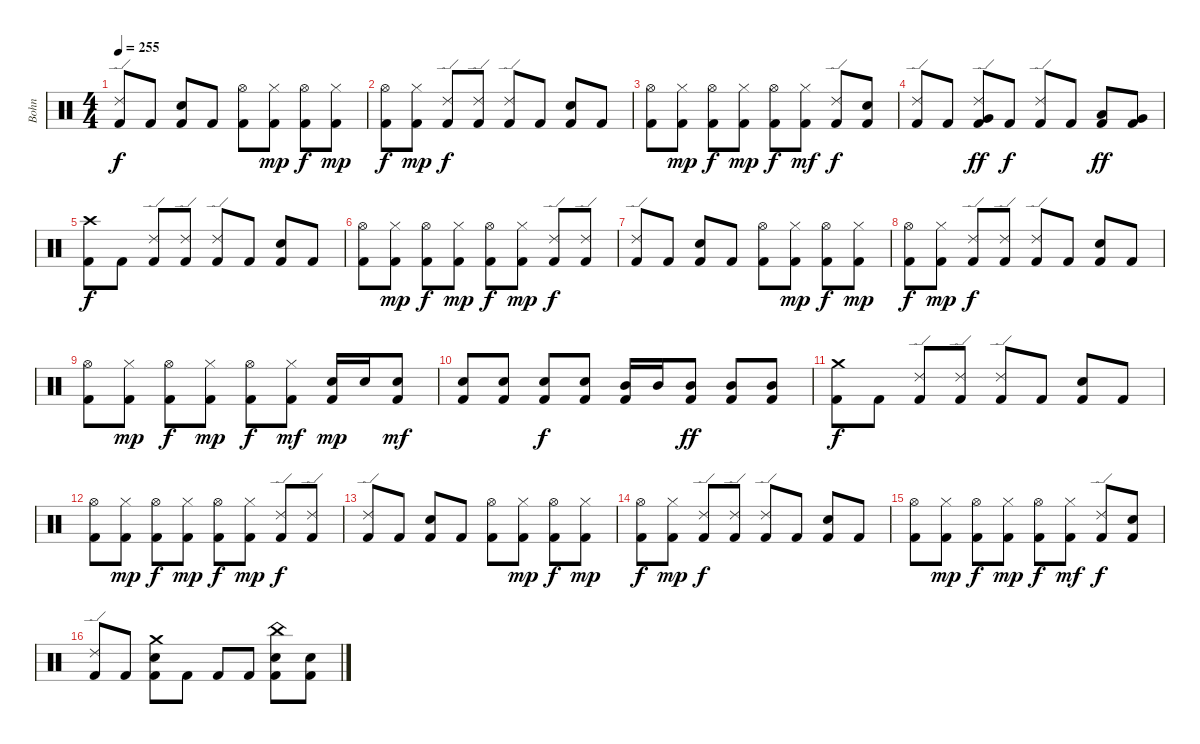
\track ("Bohn" "Bohn") {instrument percussion}
\staff {score}
\articulation defaults
\ts (4 4)
\tempo 255
\clef neutral
\ks c
("Ride (edge) 2" "Kick (hit) 2").8{dy f} "Kick (hit) 2".8 ("Electric Snare (hit)" "Kick (hit) 2").8 "Kick (hit) 2".8 ("Hi-Hat (open)" "Kick (hit) 2").8 ("Hi-Hat (closed)" "Kick (hit) 2").8{dy mp} ("Hi-Hat (open)" "Kick (hit) 2").8{dy f} ("Hi-Hat (closed)" "Kick (hit) 2").8{dy mp} |
("Hi-Hat (open)" "Kick (hit) 2").8{dy f} ("Hi-Hat (closed)" "Kick (hit) 2").8{dy mp} ("Ride (edge) 2" "Kick (hit) 2").8{dy f} ("Ride (edge) 2" "Kick (hit) 2").8 ("Ride (edge) 2" "Kick (hit) 2").8 "Kick (hit) 2".8 ("Electric Snare (hit)" "Kick (hit) 2").8 "Kick (hit) 2".8 |
("Hi-Hat (open)" "Kick (hit) 2").8 ("Hi-Hat (closed)" "Kick (hit) 2").8{dy mp} ("Hi-Hat (open)" "Kick (hit) 2").8{dy f} ("Hi-Hat (closed)" "Kick (hit) 2").8{dy mp} ("Hi-Hat (open)" "Kick (hit) 2").8{dy f} ("Hi-Hat (closed)" "Kick (hit) 2").8{dy mf} ("Ride (edge) 2" "Kick (hit) 2").8{dy f} ("Electric Snare (hit)" "Kick (hit) 2").8 |
("Ride (edge) 2" "Kick (hit) 2").8 "Kick (hit) 2".8 ("Ride (edge) 2" "Very Low Tom (hit)" "Kick (hit) 2").8{dy ff} "Kick (hit) 2".8{dy f} ("Ride (edge) 2" "Kick (hit) 2").8 "Kick (hit) 2".8 ("Low Tom (hit)" "Kick (hit) 2").8{dy ff} ("Very Low Tom (hit)" "Kick (hit) 2").8 |
("Crash high (hit)" "Kick (hit) 2").8{dy f} "Kick (hit) 2".8 ("Ride (edge) 2" "Kick (hit) 2").8 ("Ride (edge) 2" "Kick (hit) 2").8 ("Ride (edge) 2" "Kick (hit) 2").8 "Kick (hit) 2".8 ("Electric Snare (hit)" "Kick (hit) 2").8 "Kick (hit) 2".8 |
("Hi-Hat (open)" "Kick (hit) 2").8 ("Hi-Hat (closed)" "Kick (hit) 2").8{dy mp} ("Hi-Hat (open)" "Kick (hit) 2").8{dy f} ("Hi-Hat (closed)" "Kick (hit) 2").8{dy mp} ("Hi-Hat (open)" "Kick (hit) 2").8{dy f} ("Hi-Hat (closed)" "Kick (hit) 2").8{dy mp} ("Ride (edge) 2" "Kick (hit) 2").8{dy f} ("Ride (edge) 2" "Kick (hit) 2").8 |
("Ride (edge) 2" "Kick (hit) 2").8 "Kick (hit) 2".8 ("Electric Snare (hit)" "Kick (hit) 2").8 "Kick (hit) 2".8 ("Hi-Hat (open)" "Kick (hit) 2").8 ("Hi-Hat (closed)" "Kick (hit) 2").8{dy mp} ("Hi-Hat (open)" "Kick (hit) 2").8{dy f} ("Hi-Hat (closed)" "Kick (hit) 2").8{dy mp} |
("Hi-Hat (open)" "Kick (hit) 2").8{dy f} ("Hi-Hat (closed)" "Kick (hit) 2").8{dy mp} ("Ride (edge) 2" "Kick (hit) 2").8{dy f} ("Ride (edge) 2" "Kick (hit) 2").8 ("Ride (edge) 2" "Kick (hit) 2").8 "Kick (hit) 2".8 ("Electric Snare (hit)" "Kick (hit) 2").8 "Kick (hit) 2".8 |
("Hi-Hat (open)" "Kick (hit) 2").8 ("Hi-Hat (closed)" "Kick (hit) 2").8{dy mp} ("Hi-Hat (open)" "Kick (hit) 2").8{dy f} ("Hi-Hat (closed)" "Kick (hit) 2").8{dy mp} ("Hi-Hat (open)" "Kick (hit) 2").8{dy f} ("Hi-Hat (closed)" "Kick (hit) 2").8{dy mf} ("Electric Snare (hit)" "Kick (hit) 2").16{dy mp} "Electric Snare (hit)".16 ("Electric Snare (hit)" "Kick (hit) 2").8{dy mf} |
("Electric Snare (hit)" "Kick (hit) 2").8 ("Electric Snare (hit)" "Kick (hit) 2").8 ("Electric Snare (hit)" "Kick (hit) 2").8{dy f} ("Electric Snare (hit)" "Kick (hit) 2").8 ("Mid Tom (hit)" "Kick (hit) 2").16 "Mid Tom (hit)".16 ("Mid Tom (hit)" "Kick (hit) 2").8{dy ff} ("Mid Tom (hit)" "Kick (hit) 2").8 ("Mid Tom (hit)" "Kick (hit) 2").8 |
("Crash medium (hit)" "Kick (hit) 2").8{dy f} "Kick (hit) 2".8 ("Ride (edge) 2" "Kick (hit) 2").8 ("Ride (edge) 2" "Kick (hit) 2").8 ("Ride (edge) 2" "Kick (hit) 2").8 "Kick (hit) 2".8 ("Electric Snare (hit)" "Kick (hit) 2").8 "Kick (hit) 2".8 |
("Hi-Hat (open)" "Kick (hit) 2").8 ("Hi-Hat (closed)" "Kick (hit) 2").8{dy mp} ("Hi-Hat (open)" "Kick (hit) 2").8{dy f} ("Hi-Hat (closed)" "Kick (hit) 2").8{dy mp} ("Hi-Hat (open)" "Kick (hit) 2").8{dy f} ("Hi-Hat (closed)" "Kick (hit) 2").8{dy mp} ("Ride (edge) 2" "Kick (hit) 2").8{dy f} ("Ride (edge) 2" "Kick (hit) 2").8 |
("Ride (edge) 2" "Kick (hit) 2").8 "Kick (hit) 2".8 ("Electric Snare (hit)" "Kick (hit) 2").8 "Kick (hit) 2".8 ("Hi-Hat (open)" "Kick (hit) 2").8 ("Hi-Hat (closed)" "Kick (hit) 2").8{dy mp} ("Hi-Hat (open)" "Kick (hit) 2").8{dy f} ("Hi-Hat (closed)" "Kick (hit) 2").8{dy mp} |
("Hi-Hat (open)" "Kick (hit) 2").8{dy f} ("Hi-Hat (closed)" "Kick (hit) 2").8{dy mp} ("Ride (edge) 2" "Kick (hit) 2").8{dy f} ("Ride (edge) 2" "Kick (hit) 2").8 ("Ride (edge) 2" "Kick (hit) 2").8 "Kick (hit) 2".8 ("Electric Snare (hit)" "Kick (hit) 2").8 "Kick (hit) 2".8 |
("Hi-Hat (open)" "Kick (hit) 2").8 ("Hi-Hat (closed)" "Kick (hit) 2").8{dy mp} ("Hi-Hat (open)" "Kick (hit) 2").8{dy f} ("Hi-Hat (closed)" "Kick (hit) 2").8{dy mp} ("Hi-Hat (open)" "Kick (hit) 2").8{dy f} ("Hi-Hat (closed)" "Kick (hit) 2").8{dy mf} ("Ride (edge) 2" "Kick (hit) 2").8{dy f} ("Electric Snare (hit)" "Kick (hit) 2").8 |
("Ride (edge) 2" "Kick (hit) 2").8 "Kick (hit) 2".8 ("Crash medium (hit)" "Electric Snare (hit)" "Kick (hit) 2").8 "Kick (hit) 2".8 "Kick (hit) 2".8 "Kick (hit) 2".8 ("China (hit)" "Electric Snare (hit)" "Kick (hit) 2").8 ("Electric Snare (hit)" "Kick (hit) 2").8
